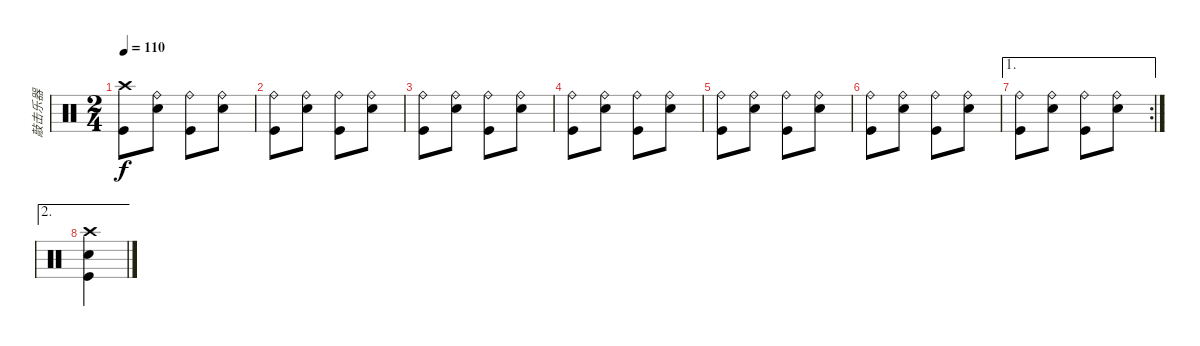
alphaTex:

\track ("敲击乐器" "敲击乐器") {instrument percussion}
\staff {score}
\articulation defaults
\ts (2 4)
\tempo 110
\clef neutral
\ks c
("Crash high (hit)" "Kick (hit)").8{dy f} ("Ride (bell)" "Snare (hit) 2").8 ("Ride (bell)" "Kick (hit)").8 ("Ride (bell)" "Snare (hit) 2").8 |
("Ride (bell)" "Kick (hit)").8 ("Ride (bell)" "Snare (hit) 2").8 ("Ride (bell)" "Kick (hit)").8 ("Ride (bell)" "Snare (hit) 2").8 |
("Ride (bell)" "Kick (hit)").8 ("Ride (bell)" "Snare (hit) 2").8 ("Ride (bell)" "Kick (hit)").8 ("Ride (bell)" "Snare (hit) 2").8 |
("Ride (bell)" "Kick (hit)").8 ("Ride (bell)" "Snare (hit) 2").8 ("Ride (bell)" "Kick (hit)").8 ("Ride (bell)" "Snare (hit) 2").8 |
("Ride (bell)" "Kick (hit)").8 ("Ride (bell)" "Snare (hit) 2").8 ("Ride (bell)" "Kick (hit)").8 ("Ride (bell)" "Snare (hit) 2").8 |
("Ride (bell)" "Kick (hit)").8 ("Ride (bell)" "Snare (hit) 2").8 ("Ride (bell)" "Kick (hit)").8 ("Ride (bell)" "Snare (hit) 2").8 |
\ae 1
\rc 2
("Ride (bell)" "Kick (hit)").8 ("Ride (bell)" "Snare (hit) 2").8 ("Ride (bell)" "Kick (hit)").8 ("Ride (bell)" "Snare (hit) 2").8 |
\ae 2
("Crash high (hit)" "Snare (hit) 2" "Kick (hit)").4
